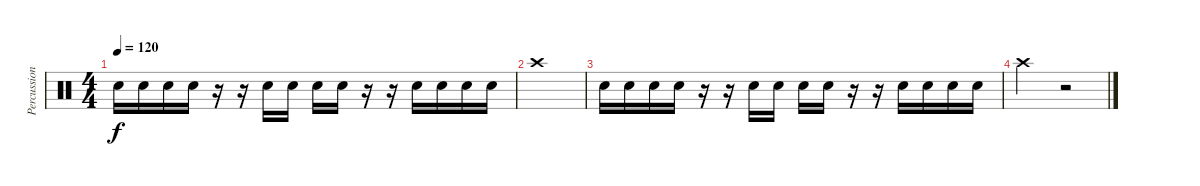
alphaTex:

\track ("Percussions" "Percussion") {instrument percussion}
\staff {score}
\articulation defaults
\ts (4 4)
\tempo 120
\clef neutral
\ks c "Snare (hit) 2".16{dy f} "Snare (hit) 2".16 "Snare (hit) 2".16 "Snare (hit) 2".16
r.16 r.16 "Snare (hit) 2".16 "Snare (hit) 2".16 "Snare (hit) 2".16 "Snare (hit) 2".16 r.16 r.16 "Snare (hit) 2".16 "Snare (hit) 2".16 "Snare (hit) 2".16 "Snare (hit) 2".16 |
"Crash high (hit)".1 |
"Snare (hit) 2".16 "Snare (hit) 2".16 "Snare (hit) 2".16 "Snare (hit) 2".16 r.16 r.16 "Snare (hit) 2".16 "Snare (hit) 2".16 "Snare (hit) 2".16 "Snare (hit) 2".16 r.16 r.16 "Snare (hit) 2".16 "Snare (hit) 2".16 "Snare (hit) 2".16 "Snare (hit) 2".16 |
"Crash high (hit)".2 r.2
